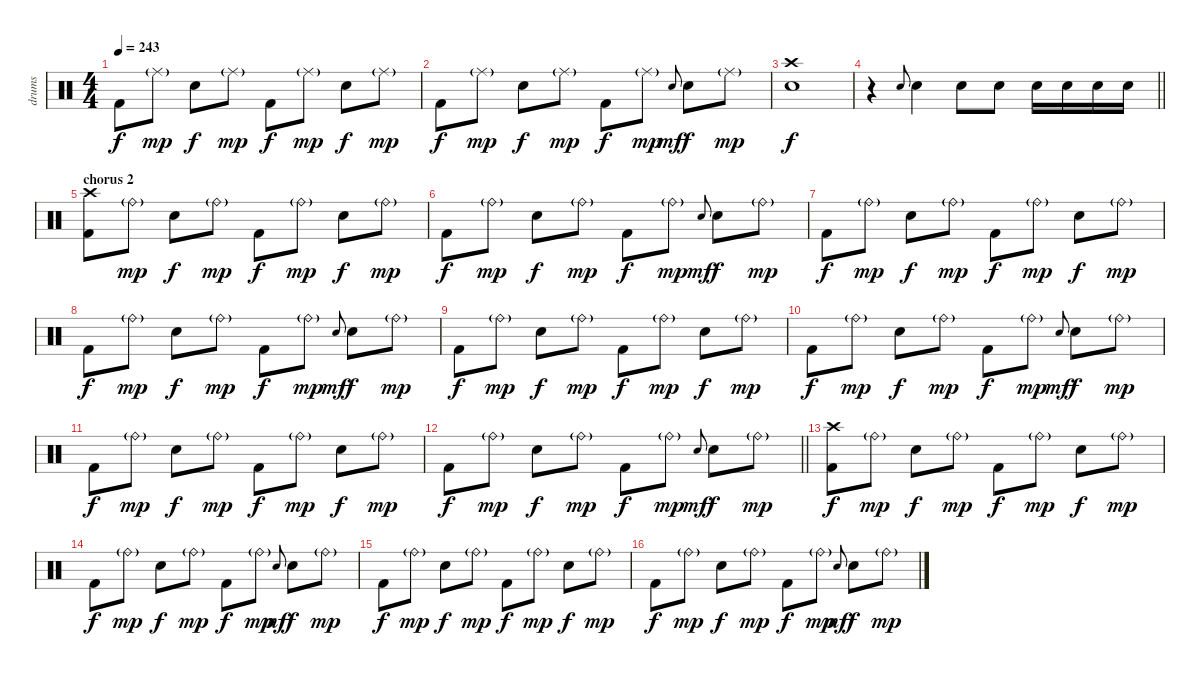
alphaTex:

\track ("drums" "drums") {instrument percussion}
\staff {score}
\articulation defaults
\ts (4 4)
\tempo 243
\clef neutral
\ks c "Kick (hit) 2".8{dy f} "Ride (middle)"{g}.8{dy mp} "Electric Snare (hit)".8{dy f} "Ride (middle)"{g}.8{dy mp} "Kick (hit) 2".8{dy f} "Ride (middle)"{g}.8{dy mp} "Electric Snare (hit)".8{dy f} "Ride (middle)"{g}.8{dy mp}
|
"Kick (hit) 2".8{dy f} "Ride (middle)"{g}.8{dy mp} "Electric Snare (hit)".8{dy f} "Ride (middle)"{g}.8{dy mp} "Kick (hit) 2".8{dy f} "Ride (middle)"{g}.8{dy mp} "Electric Snare (hit)"{x}.8{gr onbeat dy mf} "Electric Snare (hit)".8{dy f} "Ride (middle)"{g}.8{dy mp} |
("Electric Snare (hit)" "Crash high (hit)").1{dy f} |
\barLineRight lightlight
r.4 "Electric Snare (hit)"{x}.8{gr onbeat} "Electric Snare (hit)".4 "Electric Snare (hit)".8 "Electric Snare (hit)".8 "Electric Snare (hit)".16 "Electric Snare (hit)".16 "Electric Snare (hit)".16 "Electric Snare (hit)".16 |
\section ("" "chorus 2")
("Kick (hit) 2" "Crash high (hit)").8 "Ride (bell)"{g}.8{dy mp} "Electric Snare (hit)".8{dy f} "Ride (bell)"{g}.8{dy mp} "Kick (hit) 2".8{dy f} "Ride (bell)"{g}.8{dy mp} "Electric Snare (hit)".8{dy f} "Ride (bell)"{g}.8{dy mp} |
"Kick (hit) 2".8{dy f} "Ride (bell)"{g}.8{dy mp} "Electric Snare (hit)".8{dy f} "Ride (bell)"{g}.8{dy mp} "Kick (hit) 2".8{dy f} "Ride (bell)"{g}.8{dy mp} "Electric Snare (hit)"{x}.8{gr onbeat dy mf} "Electric Snare (hit)".8{dy f} "Ride (bell)"{g}.8{dy mp} |
"Kick (hit) 2".8{dy f} "Ride (bell)"{g}.8{dy mp} "Electric Snare (hit)".8{dy f} "Ride (bell)"{g}.8{dy mp} "Kick (hit) 2".8{dy f} "Ride (bell)"{g}.8{dy mp} "Electric Snare (hit)".8{dy f} "Ride (bell)"{g}.8{dy mp} |
"Kick (hit) 2".8{dy f} "Ride (bell)"{g}.8{dy mp} "Electric Snare (hit)".8{dy f} "Ride (bell)"{g}.8{dy mp} "Kick (hit) 2".8{dy f} "Ride (bell)"{g}.8{dy mp} "Electric Snare (hit)"{x}.8{gr onbeat dy mf} "Electric Snare (hit)".8{dy f} "Ride (bell)"{g}.8{dy mp} |
"Kick (hit) 2".8{dy f} "Ride (bell)"{g}.8{dy mp} "Electric Snare (hit)".8{dy f} "Ride (bell)"{g}.8{dy mp} "Kick (hit) 2".8{dy f} "Ride (bell)"{g}.8{dy mp} "Electric Snare (hit)".8{dy f} "Ride (bell)"{g}.8{dy mp} |
"Kick (hit) 2".8{dy f} "Ride (bell)"{g}.8{dy mp} "Electric Snare (hit)".8{dy f} "Ride (bell)"{g}.8{dy mp} "Kick (hit) 2".8{dy f} "Ride (bell)"{g}.8{dy mp} "Electric Snare (hit)"{x}.8{gr onbeat dy mf} "Electric Snare (hit)".8{dy f} "Ride (bell)"{g}.8{dy mp} |
"Kick (hit) 2".8{dy f} "Ride (bell)"{g}.8{dy mp} "Electric Snare (hit)".8{dy f} "Ride (bell)"{g}.8{dy mp} "Kick (hit) 2".8{dy f} "Ride (bell)"{g}.8{dy mp} "Electric Snare (hit)".8{dy f} "Ride (bell)"{g}.8{dy mp} |
\barLineRight lightlight "Kick (hit) 2".8{dy f} "Ride (bell)"{g}.8{dy mp} "Electric Snare (hit)".8{dy f} "Ride (bell)"{g}.8{dy mp} "Kick (hit) 2".8{dy f} "Ride (bell)"{g}.8{dy mp} "Electric Snare (hit)"{x}.8{gr onbeat dy mf} "Electric Snare (hit)".8{dy f} "Ride (bell)"{g}.8{dy mp}
|
("Kick (hit) 2" "Crash high (hit)").8{dy f} "Ride (bell)"{g}.8{dy mp} "Electric Snare (hit)".8{dy f} "Ride (bell)"{g}.8{dy mp} "Kick (hit) 2".8{dy f} "Ride (bell)"{g}.8{dy mp} "Electric Snare (hit)".8{dy f} "Ride (bell)"{g}.8{dy mp} |
"Kick (hit) 2".8{dy f} "Ride (bell)"{g}.8{dy mp} "Electric Snare (hit)".8{dy f} "Ride (bell)"{g}.8{dy mp} "Kick (hit) 2".8{dy f} "Ride (bell)"{g}.8{dy mp} "Electric Snare (hit)"{x}.8{gr onbeat dy mf} "Electric Snare (hit)".8{dy f} "Ride (bell)"{g}.8{dy mp} |
"Kick (hit) 2".8{dy f} "Ride (bell)"{g}.8{dy mp} "Electric Snare (hit)".8{dy f} "Ride (bell)"{g}.8{dy mp} "Kick (hit) 2".8{dy f} "Ride (bell)"{g}.8{dy mp} "Electric Snare (hit)".8{dy f} "Ride (bell)"{g}.8{dy mp} |
"Kick (hit) 2".8{dy f} "Ride (bell)"{g}.8{dy mp} "Electric Snare (hit)".8{dy f} "Ride (bell)"{g}.8{dy mp} "Kick (hit) 2".8{dy f} "Ride (bell)"{g}.8{dy mp} "Electric Snare (hit)"{x}.8{gr onbeat dy mf} "Electric Snare (hit)".8{dy f} "Ride (bell)"{g}.8{dy mp}
